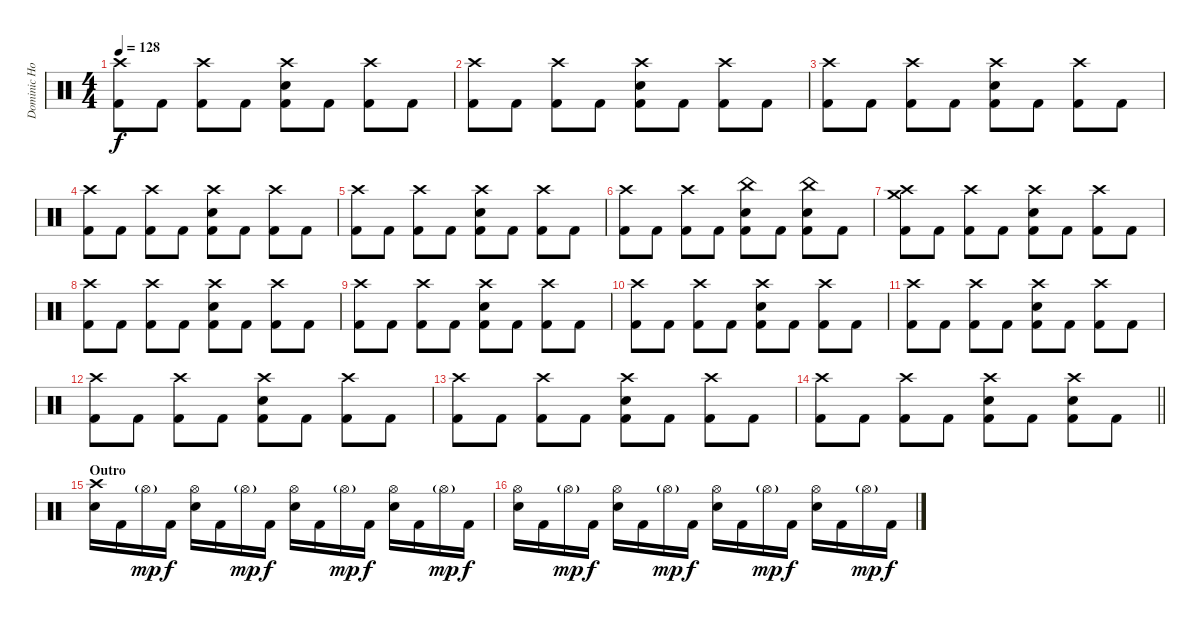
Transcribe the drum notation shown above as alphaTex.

\track ("Dominic Howard (Drums)" "Dominic Ho") {instrument percussion}
\staff {score}
\articulation defaults
\ts (4 4)
\tempo 128
\clef neutral
\ks c
("Crash high (hit)" "Kick (hit) 2").8{dy f} "Kick (hit) 2".8 ("Crash high (hit)" "Kick (hit) 2").8 "Kick (hit) 2".8 ("Crash high (hit)" "Electric Snare (hit)" "Kick (hit) 2").8 "Kick (hit) 2".8 ("Crash high (hit)" "Kick (hit) 2").8 "Kick (hit) 2".8 |
("Crash high (hit)" "Kick (hit) 2").8 "Kick (hit) 2".8 ("Crash high (hit)" "Kick (hit) 2").8 "Kick (hit) 2".8 ("Crash high (hit)" "Electric Snare (hit)" "Kick (hit) 2").8 "Kick (hit) 2".8 ("Crash high (hit)" "Kick (hit) 2").8 "Kick (hit) 2".8 |
("Crash high (hit)" "Kick (hit) 2").8 "Kick (hit) 2".8 ("Crash high (hit)" "Kick (hit) 2").8 "Kick (hit) 2".8 ("Crash high (hit)" "Electric Snare (hit)" "Kick (hit) 2").8 "Kick (hit) 2".8 ("Crash high (hit)" "Kick (hit) 2").8 "Kick (hit) 2".8 |
("Crash high (hit)" "Kick (hit) 2").8 "Kick (hit) 2".8 ("Crash high (hit)" "Kick (hit) 2").8 "Kick (hit) 2".8 ("Crash high (hit)" "Electric Snare (hit)" "Kick (hit) 2").8 "Kick (hit) 2".8 ("Crash high (hit)" "Kick (hit) 2").8 "Kick (hit) 2".8 |
("Crash high (hit)" "Kick (hit) 2").8 "Kick (hit) 2".8 ("Crash high (hit)" "Kick (hit) 2").8 "Kick (hit) 2".8 ("Crash high (hit)" "Electric Snare (hit)" "Kick (hit) 2").8 "Kick (hit) 2".8 ("Crash high (hit)" "Kick (hit) 2").8 "Kick (hit) 2".8 |
("Crash high (hit)" "Kick (hit) 2").8 "Kick (hit) 2".8 ("Crash high (hit)" "Kick (hit) 2").8 "Kick (hit) 2".8 ("China (hit)" "Electric Snare (hit)" "Kick (hit) 2").8 "Kick (hit) 2".8 ("China (hit)" "Electric Snare (hit)" "Kick (hit) 2").8 "Kick (hit) 2".8 |
("Crash high (hit)" "Crash medium (hit)" "Kick (hit) 2").8 "Kick (hit) 2".8 ("Crash high (hit)" "Kick (hit) 2").8 "Kick (hit) 2".8 ("Crash high (hit)" "Electric Snare (hit)" "Kick (hit) 2").8 "Kick (hit) 2".8 ("Crash high (hit)" "Kick (hit) 2").8 "Kick (hit) 2".8 |
("Crash high (hit)" "Kick (hit) 2").8 "Kick (hit) 2".8 ("Crash high (hit)" "Kick (hit) 2").8 "Kick (hit) 2".8 ("Crash high (hit)" "Electric Snare (hit)" "Kick (hit) 2").8 "Kick (hit) 2".8 ("Crash high (hit)" "Kick (hit) 2").8 "Kick (hit) 2".8 |
("Crash high (hit)" "Kick (hit) 2").8 "Kick (hit) 2".8 ("Crash high (hit)" "Kick (hit) 2").8 "Kick (hit) 2".8 ("Crash high (hit)" "Electric Snare (hit)" "Kick (hit) 2").8 "Kick (hit) 2".8 ("Crash high (hit)" "Kick (hit) 2").8 "Kick (hit) 2".8 |
("Crash high (hit)" "Kick (hit) 2").8 "Kick (hit) 2".8 ("Crash high (hit)" "Kick (hit) 2").8 "Kick (hit) 2".8 ("Crash high (hit)" "Electric Snare (hit)" "Kick (hit) 2").8 "Kick (hit) 2".8 ("Crash high (hit)" "Kick (hit) 2").8 "Kick (hit) 2".8 |
("Crash high (hit)" "Kick (hit) 2").8 "Kick (hit) 2".8 ("Crash high (hit)" "Kick (hit) 2").8 "Kick (hit) 2".8 ("Crash high (hit)" "Electric Snare (hit)" "Kick (hit) 2").8 "Kick (hit) 2".8 ("Crash high (hit)" "Kick (hit) 2").8 "Kick (hit) 2".8 |
("Crash high (hit)" "Kick (hit) 2").8 "Kick (hit) 2".8 ("Crash high (hit)" "Kick (hit) 2").8 "Kick (hit) 2".8 ("Crash high (hit)" "Electric Snare (hit)" "Kick (hit) 2").8 "Kick (hit) 2".8 ("Crash high (hit)" "Kick (hit) 2").8 "Kick (hit) 2".8 |
("Crash high (hit)" "Kick (hit) 2").8 "Kick (hit) 2".8 ("Crash high (hit)" "Kick (hit) 2").8 "Kick (hit) 2".8 ("Crash high (hit)" "Electric Snare (hit)" "Kick (hit) 2").8 "Kick (hit) 2".8 ("Crash high (hit)" "Kick (hit) 2").8 "Kick (hit) 2".8 |
\barLineRight lightlight
("Crash high (hit)" "Kick (hit) 2").8 "Kick (hit) 2".8 ("Crash high (hit)" "Kick (hit) 2").8 "Kick (hit) 2".8 ("Crash high (hit)" "Electric Snare (hit)" "Kick (hit) 2").8 "Kick (hit) 2".8 ("Crash high (hit)" "Electric Snare (hit)" "Kick (hit) 2").8 "Kick (hit) 2".8 |
\section ("" "Outro")
("Crash high (hit)" "Electric Snare (hit)").16 "Kick (hit) 2".16 "Hi-Hat (open)"{g}.16{dy mp} "Kick (hit) 2".16{dy f} ("Hi-Hat (open)" "Electric Snare (hit)").16 "Kick (hit) 2".16 "Hi-Hat (open)"{g}.16{dy mp} "Kick (hit) 2".16{dy f} ("Hi-Hat (open)" "Electric Snare (hit)").16 "Kick (hit) 2".16 "Hi-Hat (open)"{g}.16{dy mp} "Kick (hit) 2".16{dy f} ("Hi-Hat (open)" "Electric Snare (hit)").16 "Kick (hit) 2".16 "Hi-Hat (open)"{g}.16{dy mp} "Kick (hit) 2".16{dy f} |
("Hi-Hat (open)" "Electric Snare (hit)").16 "Kick (hit) 2".16 "Hi-Hat (open)"{g}.16{dy mp} "Kick (hit) 2".16{dy f} ("Hi-Hat (open)" "Electric Snare (hit)").16 "Kick (hit) 2".16 "Hi-Hat (open)"{g}.16{dy mp} "Kick (hit) 2".16{dy f} ("Hi-Hat (open)" "Electric Snare (hit)").16 "Kick (hit) 2".16 "Hi-Hat (open)"{g}.16{dy mp} "Kick (hit) 2".16{dy f} ("Hi-Hat (open)" "Electric Snare (hit)").16 "Kick (hit) 2".16 "Hi-Hat (open)"{g}.16{dy mp} "Kick (hit) 2".16{dy f}
